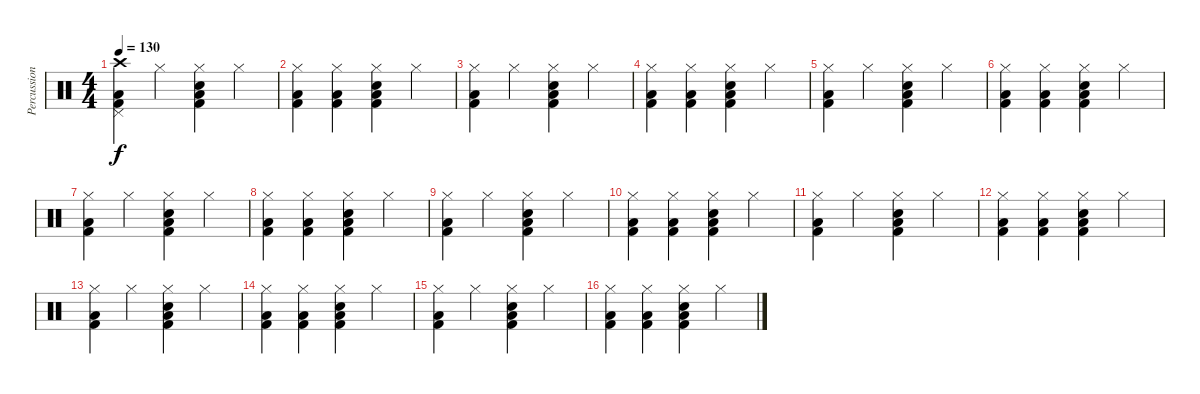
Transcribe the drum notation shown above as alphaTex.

\track ("Percussion" "Percussion") {instrument percussion}
\staff {score}
\articulation defaults
\ts (4 4)
\tempo 130
\clef neutral
\ks c
("Crash high (hit)" "Pedal Hi-Hat (hit)" "Low Tom (hit)" "Kick (hit) 2").4{dy f} "Hi-Hat (closed)".4 ("Hi-Hat (closed)" "Electric Snare (hit)" "Low Tom (hit)" "Kick (hit) 2").4 "Hi-Hat (closed)".4 |
("Hi-Hat (closed)" "Low Tom (hit)" "Kick (hit) 2").4 ("Hi-Hat (closed)" "Low Tom (hit)" "Kick (hit) 2").4 ("Hi-Hat (closed)" "Electric Snare (hit)" "Low Tom (hit)" "Kick (hit) 2").4 "Hi-Hat (closed)".4 |
("Hi-Hat (closed)" "Low Tom (hit)" "Kick (hit) 2").4 "Hi-Hat (closed)".4 ("Hi-Hat (closed)" "Electric Snare (hit)" "Low Tom (hit)" "Kick (hit) 2").4 "Hi-Hat (closed)".4 |
("Hi-Hat (closed)" "Low Tom (hit)" "Kick (hit) 2").4 ("Hi-Hat (closed)" "Low Tom (hit)" "Kick (hit) 2").4 ("Hi-Hat (closed)" "Electric Snare (hit)" "Low Tom (hit)" "Kick (hit) 2").4 "Hi-Hat (closed)".4 |
("Hi-Hat (closed)" "Low Tom (hit)" "Kick (hit) 2").4 "Hi-Hat (closed)".4 ("Hi-Hat (closed)" "Electric Snare (hit)" "Low Tom (hit)" "Kick (hit) 2").4 "Hi-Hat (closed)".4 |
("Hi-Hat (closed)" "Low Tom (hit)" "Kick (hit) 2").4 ("Hi-Hat (closed)" "Low Tom (hit)" "Kick (hit) 2").4 ("Hi-Hat (closed)" "Electric Snare (hit)" "Low Tom (hit)" "Kick (hit) 2").4 "Hi-Hat (closed)".4 |
("Hi-Hat (closed)" "Low Tom (hit)" "Kick (hit) 2").4 "Hi-Hat (closed)".4 ("Hi-Hat (closed)" "Electric Snare (hit)" "Low Tom (hit)" "Kick (hit) 2").4 "Hi-Hat (closed)".4 |
("Hi-Hat (closed)" "Low Tom (hit)" "Kick (hit) 2").4 ("Hi-Hat (closed)" "Low Tom (hit)" "Kick (hit) 2").4 ("Hi-Hat (closed)" "Electric Snare (hit)" "Low Tom (hit)" "Kick (hit) 2").4 "Hi-Hat (closed)".4 |
("Hi-Hat (closed)" "Low Tom (hit)" "Kick (hit) 2").4 "Hi-Hat (closed)".4 ("Hi-Hat (closed)" "Electric Snare (hit)" "Low Tom (hit)" "Kick (hit) 2").4 "Hi-Hat (closed)".4 |
("Hi-Hat (closed)" "Low Tom (hit)" "Kick (hit) 2").4 ("Hi-Hat (closed)" "Low Tom (hit)" "Kick (hit) 2").4 ("Hi-Hat (closed)" "Electric Snare (hit)" "Low Tom (hit)" "Kick (hit) 2").4 "Hi-Hat (closed)".4 |
("Hi-Hat (closed)" "Low Tom (hit)" "Kick (hit) 2").4 "Hi-Hat (closed)".4 ("Hi-Hat (closed)" "Electric Snare (hit)" "Low Tom (hit)" "Kick (hit) 2").4 "Hi-Hat (closed)".4 |
("Hi-Hat (closed)" "Low Tom (hit)" "Kick (hit) 2").4 ("Hi-Hat (closed)" "Low Tom (hit)" "Kick (hit) 2").4 ("Hi-Hat (closed)" "Electric Snare (hit)" "Low Tom (hit)" "Kick (hit) 2").4 "Hi-Hat (closed)".4 |
("Hi-Hat (closed)" "Low Tom (hit)" "Kick (hit) 2").4 "Hi-Hat (closed)".4 ("Hi-Hat (closed)" "Electric Snare (hit)" "Low Tom (hit)" "Kick (hit) 2").4 "Hi-Hat (closed)".4 |
("Hi-Hat (closed)" "Low Tom (hit)" "Kick (hit) 2").4 ("Hi-Hat (closed)" "Low Tom (hit)" "Kick (hit) 2").4 ("Hi-Hat (closed)" "Electric Snare (hit)" "Low Tom (hit)" "Kick (hit) 2").4 "Hi-Hat (closed)".4 |
("Hi-Hat (closed)" "Low Tom (hit)" "Kick (hit) 2").4 "Hi-Hat (closed)".4 ("Hi-Hat (closed)" "Electric Snare (hit)" "Low Tom (hit)" "Kick (hit) 2").4 "Hi-Hat (closed)".4 |
("Hi-Hat (closed)" "Low Tom (hit)" "Kick (hit) 2").4 ("Hi-Hat (closed)" "Low Tom (hit)" "Kick (hit) 2").4 ("Hi-Hat (closed)" "Electric Snare (hit)" "Low Tom (hit)" "Kick (hit) 2").4 "Hi-Hat (closed)".4
